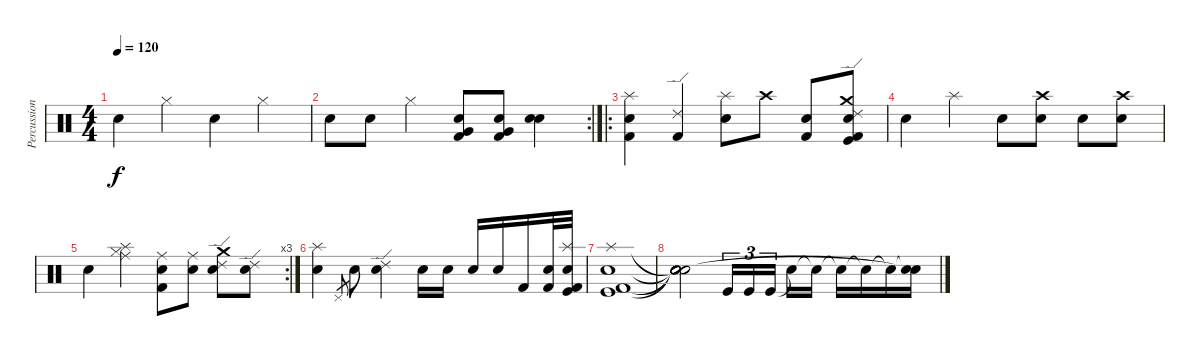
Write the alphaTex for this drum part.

\track ("Percussion" "Percussion") {instrument percussion}
\staff {score}
\articulation defaults
\ts (4 4)
\tempo 120
\clef neutral
\ks c "Electric Snare (hit)".4{dy f} "Hi-Hat (closed)".4 "Snare (hit) 2".4 "Hi-Hat (closed)".4
|
\rc 2 "Electric Snare (hit)".8 "Snare (hit) 2".8 "Hi-Hat (closed)".4
("Snare (hit) 2" "Kick (hit) 2" "Very Low Tom (hit)").8 ("Snare (hit) 2" "Kick (hit) 2" "Very Low Tom (hit)").8 ("Electric Snare (hit)" "Snare (hit) 2").4 |
\ro
("Splash (hit)" "Kick (hit) 2" "Electric Snare (hit)").4 ("Ride (edge) 2" "Kick (hit) 2").4 ("Snare (hit) 2" "Splash (hit)").8 "Crash high (hit)".8 ("Electric Snare (hit)" "Kick (hit) 2").8 ("Crash medium (hit)" "Ride (edge) 2" "Electric Snare (hit)" "Kick (hit)" "Kick (hit) 2").8 |
"Electric Snare (hit)".4 "Splash (hit)".4 "Snare (hit) 2".8 ("Crash high (hit)" "Snare (hit) 2").8 "Snare (hit) 2".8 ("Crash high (hit)" "Snare (hit) 2").8 |
\rc 3 "Electric Snare (hit)".4
("Splash (hit)" "Hi-Hat (closed)" "Ride (middle)").4 ("Electric Snare (hit)" "Kick (hit) 2" "Ride (middle)").8 ("Snare (hit) 2" "Ride (middle)").8 ("Crash medium (hit)" "Snare (hit) 2" "Ride (edge) 2").8 ("Snare (hit) 2" "Ride (edge) 2").8 |
("Electric Snare (hit)" "Splash (hit)").4 "Pedal Hi-Hat (hit)".8{gr} "Electric Snare (hit)".8 ("Snare (hit) 2" "Ride (edge) 2").4 "Snare (hit) 2".16 "Snare (hit) 2".16 "Snare (hit) 2".16 "Snare (hit) 2".16 "Kick (hit) 2".16 ("Kick (hit) 2" "Snare (hit) 2").32 ("Splash (hit)" "Electric Snare (hit)" "Kick (hit) 2" "Kick (hit)").32 |
("Splash (hit)" "Electric Snare (hit)" "Kick (hit) 2" "Kick (hit)").1 |
("Snare (hit)"{t} "Snare (hit)"{t} "Snare (hit)"{t} "Snare (hit)"{t} "Snare (hit)" "Snare (hit)").2 "Kick (hit)".16{tu (3 2)} "Kick (hit)".16{tu (3 2)} "Kick (hit)".16{tu (3 2)} "Snare (hit)"{t}.16 "Snare (hit)"{t}.16 "Snare (hit)"{t}.16 "Snare (hit)"{t}.16 "Snare (hit)"{t}.16 ("Snare (hit)"{t} "Snare (hit)"{t}).16
